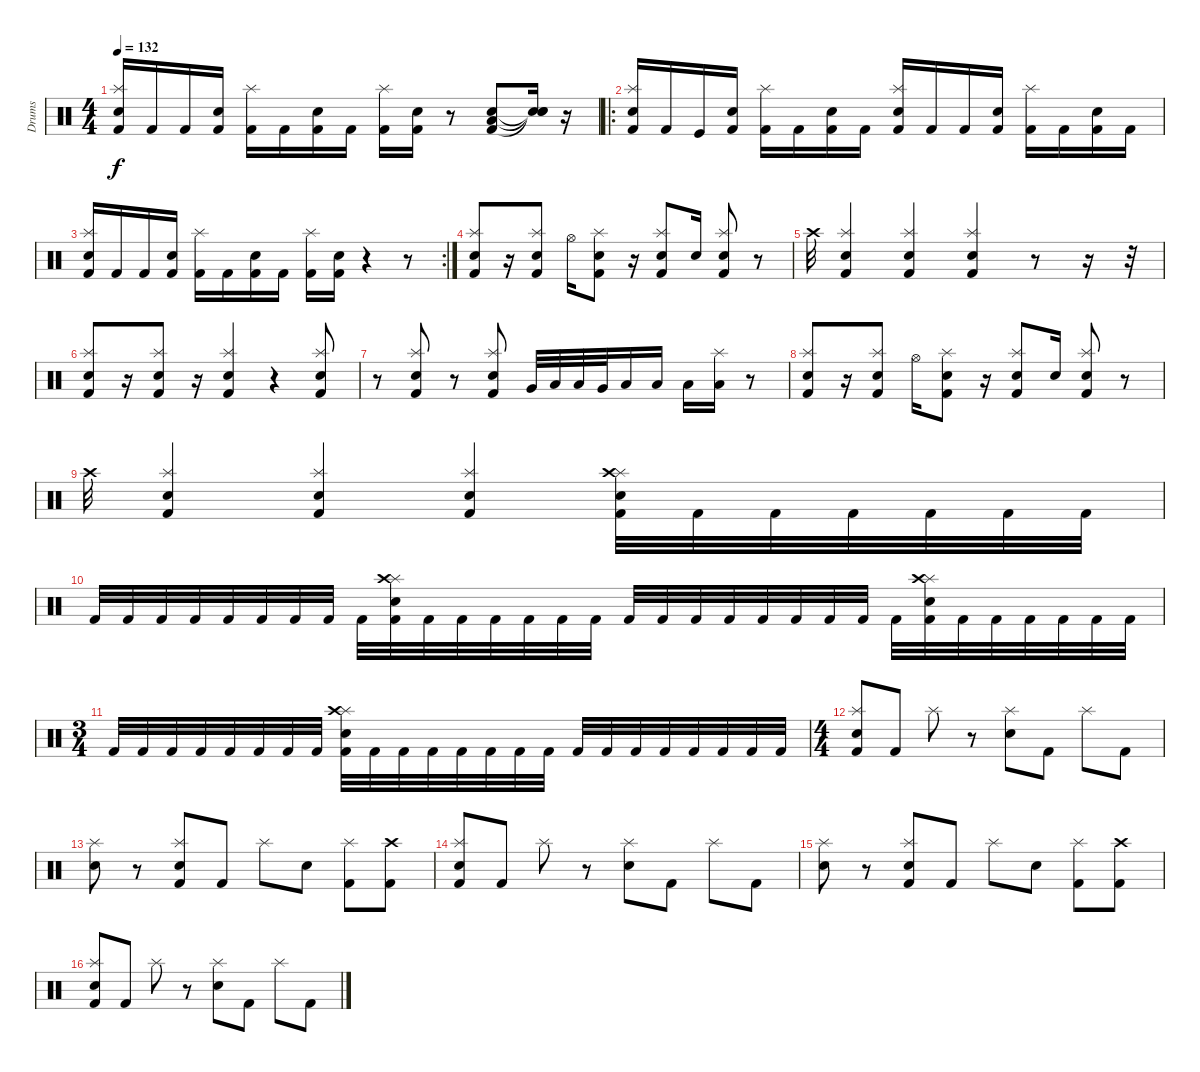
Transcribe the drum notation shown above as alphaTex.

\track ("Drums" "Drums") {instrument percussion}
\staff {score}
\articulation defaults
\ts (4 4)
\tempo 132
\clef neutral
\ks c
("Kick (hit) 2" "Splash (hit)" "Electric Snare (hit)").16{dy f} "Kick (hit) 2".16 "Kick (hit) 2".16 ("Kick (hit) 2" "Electric Snare (hit)").16 ("Kick (hit) 2" "Splash (hit)").16 "Kick (hit) 2".16 ("Kick (hit) 2" "Electric Snare (hit)").16 "Kick (hit) 2".16 ("Kick (hit) 2" "Splash (hit)").16 ("Kick (hit) 2" "Electric Snare (hit)").16 r.8 ("Kick (hit) 2" "Electric Snare (hit)" "Low Tom (hit)").8 ("Snare (hit)"{t} "Snare (hit)"{t} "Snare (hit)"{t}).16 r.16 |
\ro
("Kick (hit) 2" "Splash (hit)" "Electric Snare (hit)").16 "Kick (hit) 2".16 "Kick (hit)".16 ("Kick (hit) 2" "Electric Snare (hit)").16 ("Kick (hit) 2" "Splash (hit)").16 "Kick (hit) 2".16 ("Kick (hit) 2" "Electric Snare (hit)").16 "Kick (hit) 2".16 ("Kick (hit) 2" "Splash (hit)" "Electric Snare (hit)").16 "Kick (hit) 2".16 "Kick (hit) 2".16 ("Kick (hit) 2" "Electric Snare (hit)").16 ("Kick (hit) 2" "Splash (hit)").16 "Kick (hit) 2".16 ("Kick (hit) 2" "Electric Snare (hit)").16 "Kick (hit) 2".16 |
\rc 2
("Kick (hit) 2" "Splash (hit)" "Electric Snare (hit)").16 "Kick (hit) 2".16 "Kick (hit) 2".16 ("Kick (hit) 2" "Electric Snare (hit)").16 ("Kick (hit) 2" "Splash (hit)").16 "Kick (hit) 2".16 ("Kick (hit) 2" "Electric Snare (hit)").16 "Kick (hit) 2".16 ("Kick (hit) 2" "Splash (hit)").16 ("Kick (hit) 2" "Electric Snare (hit)").16 r.4 r.8 |
("Kick (hit) 2" "Splash (hit)" "Snare (hit) 2").8 r.16 ("Kick (hit) 2" "Splash (hit)" "Snare (hit) 2").8 "Hi-Hat (open)".16 ("Kick (hit) 2" "Splash (hit)" "Snare (hit) 2").8 r.16 ("Kick (hit) 2" "Splash (hit)" "Snare (hit) 2").8 "Electric Snare (hit)".16 ("Kick (hit) 2" "Splash (hit)" "Snare (hit) 2").8 r.8 |
"Crash high (hit)".32 ("Kick (hit) 2" "Splash (hit)" "Snare (hit) 2").4 ("Kick (hit) 2" "Splash (hit)" "Snare (hit) 2").4 ("Kick (hit) 2" "Splash (hit)" "Snare (hit) 2").4 r.8 r.16 r.32 |
("Kick (hit) 2" "Splash (hit)" "Snare (hit) 2").8 r.16 ("Kick (hit) 2" "Splash (hit)" "Snare (hit) 2").8 r.16 ("Kick (hit) 2" "Splash (hit)" "Snare (hit) 2").4 r.4 ("Kick (hit) 2" "Splash (hit)" "Snare (hit) 2").8 |
r.8 ("Kick (hit) 2" "Splash (hit)" "Snare (hit) 2").8 r.8 ("Kick (hit) 2" "Splash (hit)" "Snare (hit) 2").8 "Very Low Tom (hit)".32 "Low Tom (hit)".32 "Low Tom (hit)".32 "Very Low Tom (hit)".32 "Low Tom (hit)".16 "Low Tom (hit)".16 "Low Tom (hit)".16 ("Splash (hit)" "Low Tom (hit)").16 r.8 |
("Kick (hit) 2" "Splash (hit)" "Snare (hit) 2").8 r.16 ("Kick (hit) 2" "Splash (hit)" "Snare (hit) 2").8 "Hi-Hat (open)".16 ("Kick (hit) 2" "Splash (hit)" "Snare (hit) 2").8 r.16 ("Kick (hit) 2" "Splash (hit)" "Snare (hit) 2").8 "Electric Snare (hit)".16 ("Kick (hit) 2" "Splash (hit)" "Snare (hit) 2").8 r.8 |
"Crash high (hit)".32 ("Kick (hit) 2" "Splash (hit)" "Snare (hit) 2").4 ("Kick (hit) 2" "Splash (hit)" "Snare (hit) 2").4 ("Kick (hit) 2" "Splash (hit)" "Snare (hit) 2").4 ("Kick (hit) 2" "Splash (hit)" "Snare (hit) 2" "Crash high (hit)").32 "Kick (hit) 2".32 "Kick (hit) 2".32 "Kick (hit) 2".32 "Kick (hit) 2".32 "Kick (hit) 2".32 "Kick (hit) 2".32 |
"Kick (hit) 2".32 "Kick (hit) 2".32 "Kick (hit) 2".32 "Kick (hit) 2".32 "Kick (hit) 2".32 "Kick (hit) 2".32 "Kick (hit) 2".32 "Kick (hit) 2".32 "Kick (hit) 2".32 ("Kick (hit) 2" "Splash (hit)" "Snare (hit) 2" "Crash high (hit)").32 "Kick (hit) 2".32 "Kick (hit) 2".32 "Kick (hit) 2".32 "Kick (hit) 2".32 "Kick (hit) 2".32 "Kick (hit) 2".32 "Kick (hit) 2".32 "Kick (hit) 2".32 "Kick (hit) 2".32 "Kick (hit) 2".32 "Kick (hit) 2".32 "Kick (hit) 2".32 "Kick (hit) 2".32 "Kick (hit) 2".32 "Kick (hit) 2".32 ("Kick (hit) 2" "Splash (hit)" "Snare (hit) 2" "Crash high (hit)").32 "Kick (hit) 2".32 "Kick (hit) 2".32 "Kick (hit) 2".32 "Kick (hit) 2".32 "Kick (hit) 2".32 "Kick (hit) 2".32 |
\ts (3 4)
"Kick (hit) 2".32 "Kick (hit) 2".32 "Kick (hit) 2".32 "Kick (hit) 2".32 "Kick (hit) 2".32 "Kick (hit) 2".32 "Kick (hit) 2".32 "Kick (hit) 2".32 ("Kick (hit) 2" "Splash (hit)" "Snare (hit) 2" "Crash high (hit)").32 "Kick (hit) 2".32 "Kick (hit) 2".32 "Kick (hit) 2".32 "Kick (hit) 2".32 "Kick (hit) 2".32 "Kick (hit) 2".32 "Kick (hit) 2".32 "Kick (hit) 2".32 "Kick (hit) 2".32 "Kick (hit) 2".32 "Kick (hit) 2".32 "Kick (hit) 2".32 "Kick (hit) 2".32 "Kick (hit) 2".32 "Kick (hit) 2".32 |
\ts (4 4)
("Kick (hit) 2" "Splash (hit)" "Electric Snare (hit)").8 "Kick (hit) 2".8 "Splash (hit)".8 r.8 ("Electric Snare (hit)" "Splash (hit)").8 "Kick (hit) 2".8 "Splash (hit)".8 "Kick (hit) 2".8 |
("Electric Snare (hit)" "Splash (hit)").8 r.8 ("Kick (hit) 2" "Splash (hit)" "Electric Snare (hit)").8 "Kick (hit) 2".8 "Splash (hit)".8 "Electric Snare (hit)".8 ("Kick (hit) 2" "Splash (hit)").8 ("Kick (hit) 2" "Crash high (hit)").8 |
("Kick (hit) 2" "Splash (hit)" "Electric Snare (hit)").8 "Kick (hit) 2".8 "Splash (hit)".8 r.8 ("Electric Snare (hit)" "Splash (hit)").8 "Kick (hit) 2".8 "Splash (hit)".8 "Kick (hit) 2".8 |
("Electric Snare (hit)" "Splash (hit)").8 r.8 ("Kick (hit) 2" "Splash (hit)" "Electric Snare (hit)").8 "Kick (hit) 2".8 "Splash (hit)".8 "Electric Snare (hit)".8 ("Kick (hit) 2" "Splash (hit)").8 ("Kick (hit) 2" "Crash high (hit)").8 |
("Kick (hit) 2" "Splash (hit)" "Electric Snare (hit)").8 "Kick (hit) 2".8 "Splash (hit)".8 r.8 ("Electric Snare (hit)" "Splash (hit)").8 "Kick (hit) 2".8 "Splash (hit)".8 "Kick (hit) 2".8
